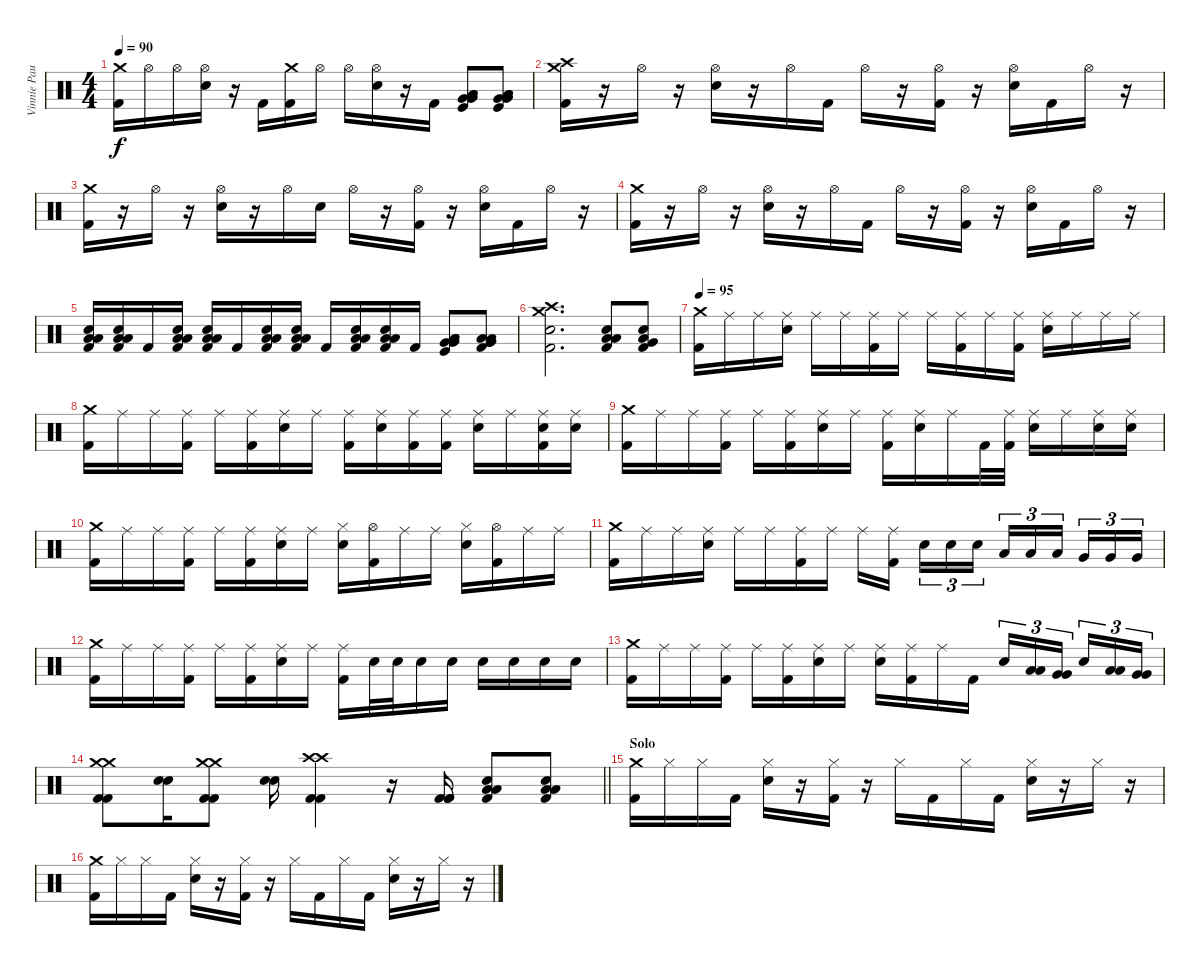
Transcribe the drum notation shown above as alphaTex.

\track ("Vinnie Paul" "Vinnie Pau") {instrument percussion}
\staff {score}
\articulation defaults
\ts (4 4)
\tempo 90
\clef neutral
\ks c
("Crash medium (hit)" "Kick (hit) 2").16{dy f} "Hi-Hat (open)".16 "Hi-Hat (open)".16 ("Hi-Hat (open)" "Snare (hit) 2").16 r.16 "Kick (hit) 2".16 ("Crash medium (hit)" "Kick (hit) 2").16 "Hi-Hat (open)".16 "Hi-Hat (open)".16 ("Hi-Hat (open)" "Snare (hit) 2").16 r.16 "Kick (hit) 2".16 ("Very Low Tom (hit)" "Very Low Tom (hit)" "Low Floor Tom (hit)" "Low Floor Tom (hit)" "Kick (hit)").8 ("Very Low Tom (hit)" "Very Low Tom (hit)" "Low Floor Tom (hit)" "Low Floor Tom (hit)" "Kick (hit)").8 |
("Crash high (hit)" "Crash medium (hit)" "Kick (hit) 2").16 r.16 "Hi-Hat (open)".16 r.16 ("Hi-Hat (open)" "Snare (hit) 2").16 r.16 "Hi-Hat (open)".16 "Kick (hit) 2".16 "Hi-Hat (open)".16 r.16 ("Hi-Hat (open)" "Kick (hit) 2").16 r.16 ("Hi-Hat (open)" "Snare (hit) 2").16 "Kick (hit) 2".16 "Hi-Hat (open)".16 r.16 |
("Crash medium (hit)" "Kick (hit) 2").16 r.16 "Hi-Hat (open)".16 r.16 ("Hi-Hat (open)" "Snare (hit) 2").16 r.16 "Hi-Hat (open)".16 "Snare (hit) 2".16 "Hi-Hat (open)".16 r.16 ("Hi-Hat (open)" "Kick (hit) 2").16 r.16 ("Hi-Hat (open)" "Snare (hit) 2").16 "Kick (hit) 2".16 "Hi-Hat (open)".16 r.16 |
("Crash medium (hit)" "Kick (hit) 2").16 r.16 "Hi-Hat (open)".16 r.16 ("Hi-Hat (open)" "Snare (hit) 2").16 r.16 "Hi-Hat (open)".16 "Kick (hit) 2".16 "Hi-Hat (open)".16 r.16 ("Hi-Hat (open)" "Kick (hit) 2").16 r.16 ("Hi-Hat (open)" "Snare (hit) 2").16 "Kick (hit) 2".16 "Hi-Hat (open)".16 r.16 |
("Low Floor Tom (hit)" "Low Floor Tom (hit)" "Snare (hit) 2" "Kick (hit) 2").16 ("Low Floor Tom (hit)" "Low Floor Tom (hit)" "Snare (hit) 2" "Kick (hit) 2").16 "Kick (hit) 2".16 ("Low Floor Tom (hit)" "Low Floor Tom (hit)" "Snare (hit) 2" "Kick (hit) 2").16 ("Low Floor Tom (hit)" "Low Floor Tom (hit)" "Snare (hit) 2" "Kick (hit) 2").16 "Kick (hit) 2".16 ("Low Floor Tom (hit)" "Low Floor Tom (hit)" "Snare (hit) 2" "Kick (hit) 2").16 ("Low Floor Tom (hit)" "Low Floor Tom (hit)" "Snare (hit) 2" "Kick (hit) 2").16 "Kick (hit) 2".16 ("Low Floor Tom (hit)" "Low Floor Tom (hit)" "Snare (hit) 2" "Kick (hit) 2").16 ("Low Floor Tom (hit)" "Low Floor Tom (hit)" "Snare (hit) 2" "Kick (hit) 2").16 "Kick (hit) 2".16 ("Very Low Tom (hit)" "Very Low Tom (hit)" "Low Floor Tom (hit)" "Low Floor Tom (hit)" "Kick (hit)").8 ("Very Low Tom (hit)" "Very Low Tom (hit)" "Low Floor Tom (hit)" "Low Floor Tom (hit)" "Kick (hit) 2").8 |
("Crash high (hit)" "Crash medium (hit)" "Snare (hit) 2" "Kick (hit) 2").2{d} ("Low Floor Tom (hit)" "Low Floor Tom (hit)" "Snare (hit) 2" "Kick (hit) 2").8 ("Very Low Tom (hit)" "Low Floor Tom (hit)" "Snare (hit) 2" "Kick (hit) 2").8 |
\tempo 95
("Crash medium (hit)" "Kick (hit) 2").16 "Ride (middle)".16 "Ride (middle)".16 ("Ride (middle)" "Snare (hit) 2").16 "Ride (middle)".16 "Ride (middle)".16 ("Ride (middle)" "Kick (hit) 2").16 "Ride (middle)".16 "Ride (middle)".16 ("Ride (middle)" "Kick (hit) 2").16 "Ride (middle)".16 ("Ride (middle)" "Kick (hit) 2").16 ("Ride (middle)" "Snare (hit) 2").16 "Ride (middle)".16 "Ride (middle)".16 "Ride (middle)".16 |
("Crash medium (hit)" "Kick (hit) 2").16 "Ride (middle)".16 "Ride (middle)".16 ("Ride (middle)" "Kick (hit) 2").16 "Ride (middle)".16 ("Ride (middle)" "Kick (hit) 2").16 ("Ride (middle)" "Snare (hit) 2").16 "Ride (middle)".16 ("Ride (middle)" "Kick (hit) 2").16 ("Ride (middle)" "Snare (hit) 2").16 ("Ride (middle)" "Kick (hit) 2").16 ("Ride (middle)" "Kick (hit) 2").16 ("Ride (middle)" "Snare (hit) 2").16 "Ride (middle)".16 ("Ride (middle)" "Snare (hit) 2" "Kick (hit) 2").16 ("Ride (middle)" "Snare (hit) 2").16 |
("Crash medium (hit)" "Kick (hit) 2").16 "Ride (middle)".16 "Ride (middle)".16 ("Ride (middle)" "Kick (hit) 2").16 "Ride (middle)".16 ("Ride (middle)" "Kick (hit) 2").16 ("Ride (middle)" "Snare (hit) 2").16 "Ride (middle)".16 ("Ride (middle)" "Kick (hit) 2").16 ("Ride (middle)" "Snare (hit) 2").16 "Ride (middle)".16 "Kick (hit) 2".32 ("Ride (middle)" "Kick (hit) 2").32 ("Ride (middle)" "Snare (hit) 2").16 "Ride (middle)".16 ("Ride (middle)" "Snare (hit) 2").16 ("Ride (middle)" "Snare (hit) 2").16 |
("Crash medium (hit)" "Kick (hit) 2").16 "Ride (middle)".16 "Ride (middle)".16 ("Ride (middle)" "Kick (hit) 2").16 "Ride (middle)".16 ("Ride (middle)" "Kick (hit) 2").16 ("Ride (middle)" "Snare (hit) 2").16 "Ride (middle)".16 ("Hi-Hat (closed)" "Snare (hit) 2").16 ("Hi-Hat (open)" "Kick (hit) 2").16 "Ride (middle)".16 "Ride (middle)".16 ("Hi-Hat (closed)" "Snare (hit) 2").16 ("Hi-Hat (open)" "Kick (hit) 2").16 "Ride (middle)".16 "Ride (middle)".16 |
("Crash medium (hit)" "Kick (hit) 2").16 "Ride (middle)".16 "Ride (middle)".16 ("Ride (middle)" "Snare (hit) 2").16 "Ride (middle)".16 "Ride (middle)".16 ("Ride (middle)" "Kick (hit) 2").16 "Ride (middle)".16 "Ride (middle)".16 ("Ride (middle)" "Kick (hit) 2").16{beam splitsecondary} "Snare (hit) 2".16{tu (3 2)} "Snare (hit) 2".16{tu (3 2)} "Snare (hit) 2".16{tu (3 2)} "Low Tom (hit)".16{tu (3 2)} "Low Tom (hit)".16{tu (3 2)} "Low Tom (hit)".16{tu (3 2) beam splitsecondary} "Very Low Tom (hit)".16{tu (3 2)} "Very Low Tom (hit)".16{tu (3 2)} "Very Low Tom (hit)".16{tu (3 2)} |
("Crash medium (hit)" "Kick (hit) 2").16 "Ride (middle)".16 "Ride (middle)".16 ("Ride (middle)" "Kick (hit) 2").16 "Ride (middle)".16 ("Ride (middle)" "Kick (hit) 2").16 ("Ride (middle)" "Snare (hit) 2").16 "Ride (middle)".16 ("Ride (middle)" "Kick (hit) 2").16 "Snare (hit) 2".32 "Snare (hit) 2".32 "Snare (hit) 2".16 "Snare (hit) 2".16 "Snare (hit) 2".16 "Snare (hit) 2".16 "Snare (hit) 2".16 "Snare (hit) 2".16 |
("Crash medium (hit)" "Kick (hit) 2").16 "Ride (middle)".16 "Ride (middle)".16 ("Ride (middle)" "Kick (hit) 2").16 "Ride (middle)".16 ("Ride (middle)" "Kick (hit) 2").16 ("Ride (middle)" "Snare (hit) 2").16 "Ride (middle)".16 ("Ride (middle)" "Snare (hit) 2").16 ("Ride (middle)" "Kick (hit) 2").16 "Ride (middle)".16 "Kick (hit) 2".16 "Snare (hit) 2".16{tu (3 2)} ("Low Tom (hit)" "Low Tom (hit)").16{tu (3 2)} ("Very Low Tom (hit)" "Very Low Tom (hit)").16{tu (3 2) beam splitsecondary} "Snare (hit) 2".16{tu (3 2)} ("Low Tom (hit)" "Low Tom (hit)").16{tu (3 2)} ("Very Low Tom (hit)" "Very Low Tom (hit)").16{tu (3 2)} |
\barLineRight lightlight
("Crash medium (hit)" "Crash medium (hit)" "Kick (hit) 2" "Kick (hit) 2").8 ("Snare (hit) 2" "Snare (hit) 2").16 ("Crash medium (hit)" "Crash medium (hit)" "Kick (hit) 2" "Kick (hit) 2").8 ("Snare (hit) 2" "Snare (hit) 2").16 ("Crash high (hit)" "Crash high (hit)" "Kick (hit) 2" "Kick (hit) 2").4 r.16 ("Kick (hit) 2" "Kick (hit) 2" "Kick (hit) 2").16 ("Low Floor Tom (hit)" "Low Floor Tom (hit)" "Snare (hit) 2" "Kick (hit) 2").8 ("Low Floor Tom (hit)" "Low Floor Tom (hit)" "Snare (hit) 2" "Kick (hit) 2").8 |
\section ("" "Solo")
("Crash medium (hit)" "Kick (hit) 2").16 "Hi-Hat (closed)".16 "Hi-Hat (closed)".16 "Kick (hit) 2".16 ("Hi-Hat (closed)" "Snare (hit) 2").16 r.16 ("Hi-Hat (closed)" "Kick (hit) 2").16 r.16 "Hi-Hat (closed)".16 "Kick (hit) 2".16 "Hi-Hat (closed)".16 "Kick (hit) 2".16 ("Hi-Hat (closed)" "Snare (hit) 2").16 r.16 "Hi-Hat (closed)".16 r.16 |
("Crash medium (hit)" "Kick (hit) 2").16 "Hi-Hat (closed)".16 "Hi-Hat (closed)".16 "Kick (hit) 2".16 ("Hi-Hat (closed)" "Snare (hit) 2").16 r.16 ("Hi-Hat (closed)" "Kick (hit) 2").16 r.16 "Hi-Hat (closed)".16 "Kick (hit) 2".16 "Hi-Hat (closed)".16 "Kick (hit) 2".16 ("Hi-Hat (closed)" "Snare (hit) 2").16 r.16 "Hi-Hat (closed)".16 r.16
